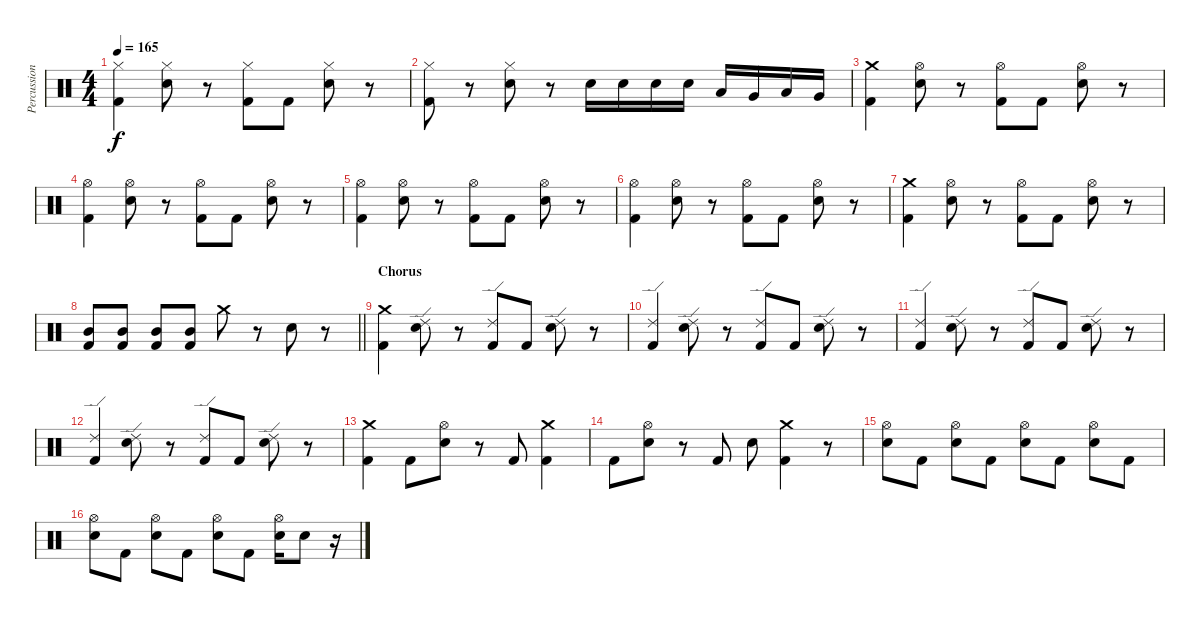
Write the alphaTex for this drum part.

\track ("Percussion" "Percussion") {instrument percussion}
\staff {score}
\articulation defaults
\ts (4 4)
\tempo 165
\clef neutral
\ks c
("Hi-Hat (closed)" "Kick (hit) 2").4{dy f} ("Hi-Hat (closed)" "Electric Snare (hit)").8 r.8 ("Hi-Hat (closed)" "Kick (hit) 2").8 "Kick (hit) 2".8 ("Hi-Hat (closed)" "Electric Snare (hit)").8 r.8 |
("Hi-Hat (closed)" "Kick (hit) 2").8 r.8 ("Hi-Hat (closed)" "Electric Snare (hit)").8 r.8 "Electric Snare (hit)".16 "Electric Snare (hit)".16 "Electric Snare (hit)".16 "Electric Snare (hit)".16 "Low Tom (hit)".16 "Very Low Tom (hit)".16 "Low Tom (hit)".16 "Very Low Tom (hit)".16 |
("Crash medium (hit)" "Kick (hit) 2").4 ("Hi-Hat (open)" "Electric Snare (hit)").8 r.8 ("Hi-Hat (open)" "Kick (hit) 2").8 "Kick (hit) 2".8 ("Hi-Hat (open)" "Electric Snare (hit)").8 r.8 |
("Hi-Hat (open)" "Kick (hit) 2").4 ("Hi-Hat (open)" "Electric Snare (hit)").8 r.8 ("Hi-Hat (open)" "Kick (hit) 2").8 "Kick (hit) 2".8 ("Hi-Hat (open)" "Electric Snare (hit)").8 r.8 |
("Hi-Hat (open)" "Kick (hit) 2").4 ("Hi-Hat (open)" "Electric Snare (hit)").8 r.8 ("Hi-Hat (open)" "Kick (hit) 2").8 "Kick (hit) 2".8 ("Hi-Hat (open)" "Electric Snare (hit)").8 r.8 |
("Hi-Hat (open)" "Kick (hit) 2").4 ("Hi-Hat (open)" "Electric Snare (hit)").8 r.8 ("Hi-Hat (open)" "Kick (hit) 2").8 "Kick (hit) 2".8 ("Hi-Hat (open)" "Electric Snare (hit)").8 r.8 |
("Crash medium (hit)" "Kick (hit) 2").4 ("Hi-Hat (open)" "Electric Snare (hit)").8 r.8 ("Hi-Hat (open)" "Kick (hit) 2").8 "Kick (hit) 2".8 ("Hi-Hat (open)" "Electric Snare (hit)").8 r.8 |
\barLineRight lightlight
("Mid Tom (hit)" "Kick (hit) 2").8 ("Mid Tom (hit)" "Kick (hit) 2").8 ("Mid Tom (hit)" "Kick (hit) 2").8 ("Mid Tom (hit)" "Kick (hit) 2").8 "Crash medium (hit)".8 r.8 "Electric Snare (hit)".8 r.8 |
\section ("" "Chorus")
("Crash medium (hit)" "Kick (hit) 2").4 ("Ride (edge) 2" "Electric Snare (hit)").8 r.8 ("Ride (edge) 2" "Kick (hit) 2").8 "Kick (hit) 2".8 ("Ride (edge) 2" "Electric Snare (hit)").8 r.8 |
("Ride (edge) 2" "Kick (hit) 2").4 ("Ride (edge) 2" "Electric Snare (hit)").8 r.8 ("Ride (edge) 2" "Kick (hit) 2").8 "Kick (hit) 2".8 ("Ride (edge) 2" "Electric Snare (hit)").8 r.8 |
("Ride (edge) 2" "Kick (hit) 2").4 ("Ride (edge) 2" "Electric Snare (hit)").8 r.8 ("Ride (edge) 2" "Kick (hit) 2").8 "Kick (hit) 2".8 ("Ride (edge) 2" "Electric Snare (hit)").8 r.8 |
("Ride (edge) 2" "Kick (hit) 2").4 ("Ride (edge) 2" "Electric Snare (hit)").8 r.8 ("Ride (edge) 2" "Kick (hit) 2").8 "Kick (hit) 2".8 ("Ride (edge) 2" "Electric Snare (hit)").8 r.8 |
("Crash medium (hit)" "Kick (hit) 2").4 "Kick (hit) 2".8 ("Hi-Hat (open)" "Electric Snare (hit)").8 r.8 "Kick (hit) 2".8 ("Crash medium (hit)" "Kick (hit) 2").4 |
"Kick (hit) 2".8 ("Hi-Hat (open)" "Electric Snare (hit)").8 r.8 "Kick (hit) 2".8 "Electric Snare (hit)".8 ("Crash medium (hit)" "Kick (hit) 2").4 r.8 |
("Hi-Hat (open)" "Electric Snare (hit)").8 "Kick (hit) 2".8 ("Hi-Hat (open)" "Electric Snare (hit)").8 "Kick (hit) 2".8 ("Hi-Hat (open)" "Electric Snare (hit)").8 "Kick (hit) 2".8 ("Hi-Hat (open)" "Electric Snare (hit)").8 "Kick (hit) 2".8 |
("Hi-Hat (open)" "Electric Snare (hit)").8 "Kick (hit) 2".8 ("Hi-Hat (open)" "Electric Snare (hit)").8 "Kick (hit) 2".8 ("Hi-Hat (open)" "Electric Snare (hit)").8 "Kick (hit) 2".8 ("Hi-Hat (open)" "Electric Snare (hit)").16 "Electric Snare (hit)".8 r.16
